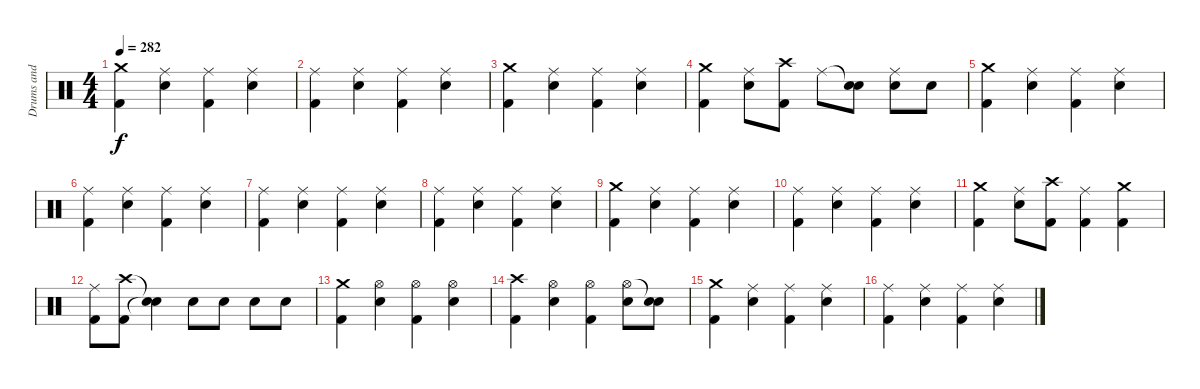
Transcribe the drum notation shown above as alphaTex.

\track ("Drums and Percussion" "Drums and ") {instrument percussion}
\staff {score}
\articulation defaults
\ts (4 4)
\tempo 282
\clef neutral
\ks c
("Crash medium (hit)" "Kick (hit) 2").4{dy f} ("Ride (middle)" "Snare (hit) 2").4 ("Ride (middle)" "Kick (hit) 2").4 ("Ride (middle)" "Snare (hit) 2").4 |
("Ride (middle)" "Kick (hit) 2").4 ("Ride (middle)" "Snare (hit) 2").4 ("Ride (middle)" "Kick (hit) 2").4 ("Ride (middle)" "Snare (hit) 2").4 |
("Crash medium (hit)" "Kick (hit) 2").4 ("Ride (middle)" "Snare (hit) 2").4 ("Ride (middle)" "Kick (hit) 2").4 ("Ride (middle)" "Snare (hit) 2").4 |
("Crash medium (hit)" "Kick (hit) 2").4 ("Ride (middle)" "Snare (hit) 2").8 ("Crash high (hit)" "Kick (hit) 2").8 "Ride (middle)".8 ("Snare (hit)"{t} "Snare (hit) 2").8 ("Ride (middle)" "Snare (hit) 2").8 "Snare (hit) 2".8 |
("Crash medium (hit)" "Kick (hit) 2").4 ("Ride (middle)" "Snare (hit) 2").4 ("Ride (middle)" "Kick (hit) 2").4 ("Ride (middle)" "Snare (hit) 2").4 |
("Ride (middle)" "Kick (hit) 2").4 ("Ride (middle)" "Snare (hit) 2").4 ("Ride (middle)" "Kick (hit) 2").4 ("Ride (middle)" "Snare (hit) 2").4 |
("Ride (middle)" "Kick (hit) 2").4 ("Ride (middle)" "Snare (hit) 2").4 ("Ride (middle)" "Kick (hit) 2").4 ("Ride (middle)" "Snare (hit) 2").4 |
("Ride (middle)" "Kick (hit) 2").4 ("Ride (middle)" "Snare (hit) 2").4 ("Ride (middle)" "Kick (hit) 2").4 ("Ride (middle)" "Snare (hit) 2").4 |
("Crash medium (hit)" "Kick (hit) 2").4 ("Ride (middle)" "Snare (hit) 2").4 ("Ride (middle)" "Kick (hit) 2").4 ("Ride (middle)" "Snare (hit) 2").4 |
("Ride (middle)" "Kick (hit) 2").4 ("Ride (middle)" "Snare (hit) 2").4 ("Ride (middle)" "Kick (hit) 2").4 ("Ride (middle)" "Snare (hit) 2").4 |
("Crash medium (hit)" "Kick (hit) 2").4 ("Ride (middle)" "Snare (hit) 2").8 ("Crash high (hit)" "Kick (hit) 2").8 ("Ride (middle)" "Kick (hit) 2").4 ("Crash medium (hit)" "Kick (hit) 2").4 |
("Ride (middle)" "Kick (hit) 2").8 ("Crash high (hit)" "Kick (hit) 2").8 ("Snare (hit)"{t} "Snare (hit)"{t}).4 "Snare (hit) 2".8 "Snare (hit) 2".8 "Snare (hit) 2".8 "Snare (hit) 2".8 |
("Crash medium (hit)" "Kick (hit) 2").4 ("Hi-Hat (open)" "Snare (hit) 2").4 ("Hi-Hat (open)" "Kick (hit) 2").4 ("Hi-Hat (open)" "Snare (hit) 2").4 |
("Crash high (hit)" "Kick (hit) 2").4 ("Hi-Hat (open)" "Snare (hit) 2").4 ("Hi-Hat (open)" "Kick (hit) 2").4 ("Hi-Hat (open)" "Snare (hit) 2").8 ("Snare (hit)"{t} "Snare (hit) 2").8 |
("Crash medium (hit)" "Kick (hit) 2").4 ("Ride (middle)" "Snare (hit) 2").4 ("Ride (middle)" "Kick (hit) 2").4 ("Ride (middle)" "Snare (hit) 2").4 |
("Ride (middle)" "Kick (hit) 2").4 ("Ride (middle)" "Snare (hit) 2").4 ("Ride (middle)" "Kick (hit) 2").4 ("Ride (middle)" "Snare (hit) 2").4
